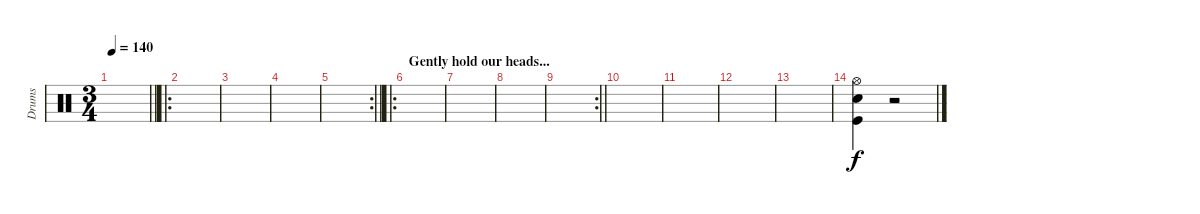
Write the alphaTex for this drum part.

\track ("Drums" "Drums") {instrument percussion}
\staff {score}
\articulation defaults
\ts (3 4)
\tempo 140
\clef neutral
\barLineRight lightlight
\ks c
|
\ro
\section ("" "")
|
|
|
\rc 2
\barLineRight lightlight
|
\ro
\section ("" "Gently hold our heads...")
|
|
|
\rc 2
\barLineRight lightlight
|
\section ("" "")
|
|
|
|
("Kick (hit)" "Snare (hit) 2" "Hi-Hat (open)").4 r.2
